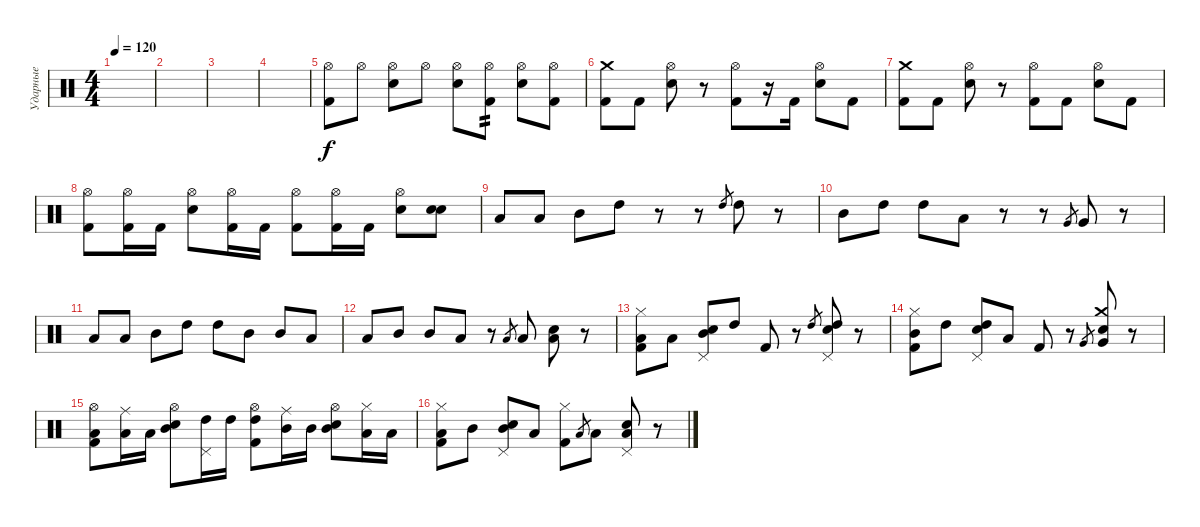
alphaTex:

\track ("Ударные" "Ударные") {instrument percussion}
\staff {score}
\articulation defaults
\ts (4 4)
\tempo 120
\clef neutral
\ks c
|
|
|
|
("Hi-Hat (open)" "Kick (hit) 2").8 "Hi-Hat (open)".8 ("Hi-Hat (open)" "Electric Snare (hit)").8 "Hi-Hat (open)".8 ("Hi-Hat (open)" "Electric Snare (hit)").8 ("Hi-Hat (open)" "Kick (hit) 2").8{tp 2} ("Hi-Hat (open)" "Electric Snare (hit)").8 ("Hi-Hat (open)" "Kick (hit) 2").8 |
("Crash medium (hit)" "Kick (hit) 2").8 "Kick (hit) 2".8 ("Hi-Hat (open)" "Electric Snare (hit)").8 r.8 ("Hi-Hat (open)" "Kick (hit) 2").8 r.16 "Kick (hit) 2".16 ("Hi-Hat (open)" "Electric Snare (hit)").8 "Kick (hit) 2".8 |
("Crash medium (hit)" "Kick (hit) 2").8 "Kick (hit) 2".8 ("Hi-Hat (open)" "Electric Snare (hit)").8 r.8 ("Hi-Hat (open)" "Kick (hit) 2").8 "Kick (hit) 2".8 ("Hi-Hat (open)" "Electric Snare (hit)").8 "Kick (hit) 2".8 |
("Hi-Hat (open)" "Kick (hit) 2").8 ("Hi-Hat (open)" "Kick (hit) 2").16 "Kick (hit) 2".16 ("Hi-Hat (open)" "Electric Snare (hit)").8 ("Hi-Hat (open)" "Kick (hit) 2").16 "Kick (hit) 2".16 ("Hi-Hat (open)" "Kick (hit) 2").8 ("Hi-Hat (open)" "Kick (hit) 2").16 "Kick (hit) 2".16 ("Hi-Hat (open)" "Electric Snare (hit)").8 ("Electric Snare (hit)" "Electric Snare (hit)").8 |
"Low Tom (hit)".8 "Low Tom (hit)".8 "Mid Tom (hit)".8 "High Tom (hit)".8 r.8 r.8 "High Tom (hit)".8{gr} "High Tom (hit)".8 r.8 |
"Mid Tom (hit)".8 "High Tom (hit)".8 "High Tom (hit)".8 "Low Floor Tom (hit)".8 r.8 r.8 "Very Low Tom (hit)".8{gr} "Very Low Tom (hit)".8 r.8 |
"Low Tom (hit)".8 "Low Tom (hit)".8 "Mid Tom (hit)".8 "High Tom (hit)".8 "High Tom (hit)".8 "Mid Tom (hit)".8 "Mid Tom (hit)".8 "Low Tom (hit)".8 |
"Low Tom (hit)".8 "Mid Tom (hit)".8 "Mid Tom (hit)".8 "Low Floor Tom (hit)".8 r.8 "Low Floor Tom (hit)".8{gr} "Low Floor Tom (hit)".8 ("Electric Snare (hit)" "Low Floor Tom (hit)").8 r.8 |
("Hi-Hat (closed)" "Kick (hit) 2" "Low Tom (hit)").8 "Low Tom (hit)".8 ("Pedal Hi-Hat (hit)" "Electric Snare (hit)" "Mid Tom (hit)").8 "High Tom (hit)".8 "Kick (hit) 2".8 r.8 "High Tom (hit)".8{gr} ("Pedal Hi-Hat (hit)" "Electric Snare (hit)" "High Tom (hit)").8 r.8 |
("Hi-Hat (closed)" "Kick (hit) 2" "Mid Tom (hit)").8 "High Tom (hit)".8 ("Pedal Hi-Hat (hit)" "Electric Snare (hit)" "High Tom (hit)").8 "Low Floor Tom (hit)".8 "Kick (hit) 2".8 r.8 "Very Low Tom (hit)".8{gr} ("Crash medium (hit)" "Electric Snare (hit)" "Very Low Tom (hit)").8 r.8 |
("Hi-Hat (open)" "Kick (hit) 2" "Low Tom (hit)").8 ("Ride (middle)" "Low Tom (hit)").16 "Low Tom (hit)".16 ("Hi-Hat (open)" "Electric Snare (hit)" "Mid Tom (hit)").8 ("Pedal Hi-Hat (hit)" "High Tom (hit)").16 "High Tom (hit)".16 ("Hi-Hat (open)" "Kick (hit) 2" "High Tom (hit)").8 ("Ride (middle)" "Mid Tom (hit)").16 "Mid Tom (hit)".16 ("Hi-Hat (open)" "Electric Snare (hit)" "Mid Tom (hit)").8 ("Hi-Hat (closed)" "Low Tom (hit)").16 "Low Tom (hit)".16 |
("Hi-Hat (closed)" "Kick (hit) 2" "Low Tom (hit)").8 "Mid Tom (hit)".8 ("Pedal Hi-Hat (hit)" "Electric Snare (hit)" "Mid Tom (hit)").8 "Low Floor Tom (hit)".8 ("Hi-Hat (closed)" "Kick (hit) 2").8 "Low Floor Tom (hit)".8{gr} "Low Floor Tom (hit)".8 ("Pedal Hi-Hat (hit)" "Electric Snare (hit)" "Low Floor Tom (hit)").8 r.8
